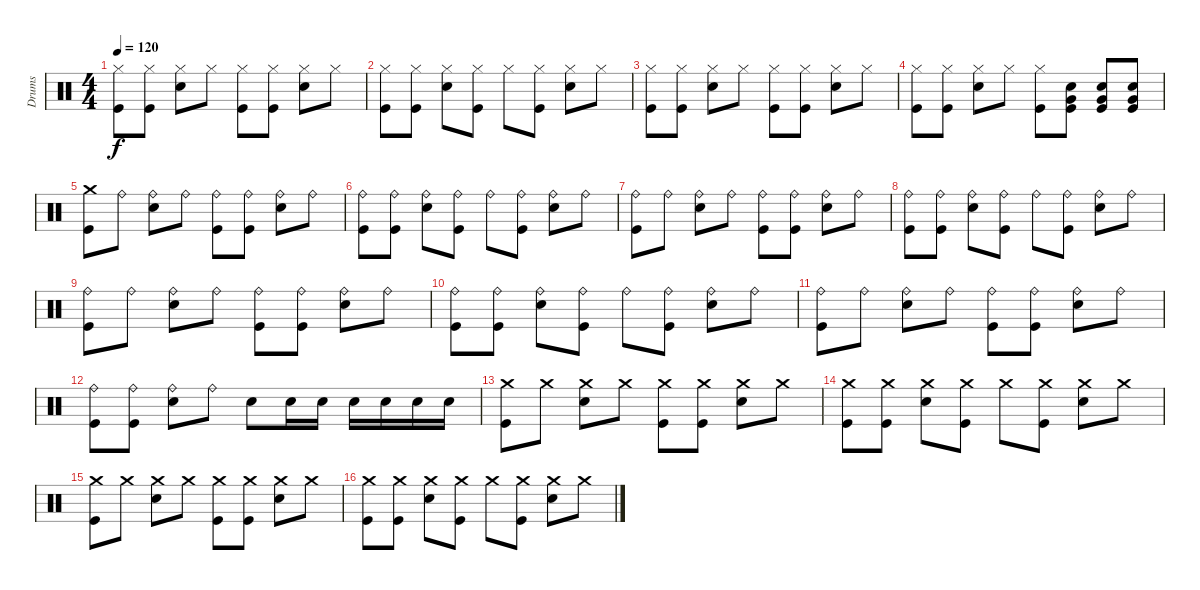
\track ("Drums" "Drums") {instrument percussion}
\staff {score}
\articulation defaults
\ts (4 4)
\tempo 120
\clef neutral
\ks c
("Hi-Hat (closed)" "Kick (hit)").8{dy f} ("Hi-Hat (closed)" "Kick (hit)").8 ("Hi-Hat (closed)" "Snare (hit) 2").8 "Hi-Hat (closed)".8 ("Hi-Hat (closed)" "Kick (hit)").8 ("Hi-Hat (closed)" "Kick (hit)").8 ("Hi-Hat (closed)" "Snare (hit) 2").8 "Hi-Hat (closed)".8 |
("Hi-Hat (closed)" "Kick (hit)").8 ("Hi-Hat (closed)" "Kick (hit)").8 ("Hi-Hat (closed)" "Snare (hit) 2").8 ("Hi-Hat (closed)" "Kick (hit)").8 "Hi-Hat (closed)".8 ("Hi-Hat (closed)" "Kick (hit)").8 ("Hi-Hat (closed)" "Snare (hit) 2").8 "Hi-Hat (closed)".8 |
("Hi-Hat (closed)" "Kick (hit)").8 ("Hi-Hat (closed)" "Kick (hit)").8 ("Hi-Hat (closed)" "Snare (hit) 2").8 "Hi-Hat (closed)".8 ("Hi-Hat (closed)" "Kick (hit)").8 ("Hi-Hat (closed)" "Kick (hit)").8 ("Hi-Hat (closed)" "Snare (hit) 2").8 "Hi-Hat (closed)".8 |
("Hi-Hat (closed)" "Kick (hit)").8 ("Hi-Hat (closed)" "Kick (hit)").8 ("Hi-Hat (closed)" "Snare (hit) 2").8 "Hi-Hat (closed)".8 ("Hi-Hat (closed)" "Kick (hit)").8 ("Snare (hit) 2" "Very Low Tom (hit)" "Kick (hit)").8 ("Snare (hit) 2" "Very Low Tom (hit)" "Kick (hit)").8 ("Snare (hit) 2" "Very Low Tom (hit)" "Kick (hit)").8 |
("Crash medium (hit)" "Kick (hit)").8 "Ride (bell)".8 ("Ride (bell)" "Snare (hit) 2").8 "Ride (bell)".8 ("Ride (bell)" "Kick (hit)").8 ("Ride (bell)" "Kick (hit)").8 ("Ride (bell)" "Snare (hit) 2").8 "Ride (bell)".8 |
("Ride (bell)" "Kick (hit)").8 ("Ride (bell)" "Kick (hit)").8 ("Ride (bell)" "Snare (hit) 2").8 ("Ride (bell)" "Kick (hit)").8 "Ride (bell)".8 ("Ride (bell)" "Kick (hit)").8 ("Ride (bell)" "Snare (hit) 2").8 "Ride (bell)".8 |
("Ride (bell)" "Kick (hit)").8 "Ride (bell)".8 ("Ride (bell)" "Snare (hit) 2").8 "Ride (bell)".8 ("Ride (bell)" "Kick (hit)").8 ("Ride (bell)" "Kick (hit)").8 ("Ride (bell)" "Snare (hit) 2").8 "Ride (bell)".8 |
("Ride (bell)" "Kick (hit)").8 ("Ride (bell)" "Kick (hit)").8 ("Ride (bell)" "Snare (hit) 2").8 ("Ride (bell)" "Kick (hit)").8 "Ride (bell)".8 ("Ride (bell)" "Kick (hit)").8 ("Ride (bell)" "Snare (hit) 2").8 "Ride (bell)".8 |
("Ride (bell)" "Kick (hit)").8 "Ride (bell)".8 ("Ride (bell)" "Snare (hit) 2").8 "Ride (bell)".8 ("Ride (bell)" "Kick (hit)").8 ("Ride (bell)" "Kick (hit)").8 ("Ride (bell)" "Snare (hit) 2").8 "Ride (bell)".8 |
("Ride (bell)" "Kick (hit)").8 ("Ride (bell)" "Kick (hit)").8 ("Ride (bell)" "Snare (hit) 2").8 ("Ride (bell)" "Kick (hit)").8 "Ride (bell)".8 ("Ride (bell)" "Kick (hit)").8 ("Ride (bell)" "Snare (hit) 2").8 "Ride (bell)".8 |
("Ride (bell)" "Kick (hit)").8 "Ride (bell)".8 ("Ride (bell)" "Snare (hit) 2").8 "Ride (bell)".8 ("Ride (bell)" "Kick (hit)").8 ("Ride (bell)" "Kick (hit)").8 ("Ride (bell)" "Snare (hit) 2").8 "Ride (bell)".8 |
("Ride (bell)" "Kick (hit)").8 ("Ride (bell)" "Kick (hit)").8 ("Ride (bell)" "Snare (hit) 2").8 "Ride (bell)".8 "Snare (hit) 2".8 "Snare (hit) 2".16 "Snare (hit) 2".16 "Snare (hit) 2".16 "Snare (hit) 2".16 "Snare (hit) 2".16 "Snare (hit) 2".16 |
("Crash medium (hit)" "Kick (hit)").8 "Crash medium (hit)".8 ("Crash medium (hit)" "Snare (hit) 2").8 "Crash medium (hit)".8 ("Crash medium (hit)" "Kick (hit)").8 ("Crash medium (hit)" "Kick (hit)").8 ("Crash medium (hit)" "Snare (hit) 2").8 "Crash medium (hit)".8 |
("Crash medium (hit)" "Kick (hit)").8 ("Crash medium (hit)" "Kick (hit)").8 ("Crash medium (hit)" "Snare (hit) 2").8 ("Crash medium (hit)" "Kick (hit)").8 "Crash medium (hit)".8 ("Crash medium (hit)" "Kick (hit)").8 ("Crash medium (hit)" "Snare (hit) 2").8 "Crash medium (hit)".8 |
("Crash medium (hit)" "Kick (hit)").8 "Crash medium (hit)".8 ("Crash medium (hit)" "Snare (hit) 2").8 "Crash medium (hit)".8 ("Crash medium (hit)" "Kick (hit)").8 ("Crash medium (hit)" "Kick (hit)").8 ("Crash medium (hit)" "Snare (hit) 2").8 "Crash medium (hit)".8 |
("Crash medium (hit)" "Kick (hit)").8 ("Crash medium (hit)" "Kick (hit)").8 ("Crash medium (hit)" "Snare (hit) 2").8 ("Crash medium (hit)" "Kick (hit)").8 "Crash medium (hit)".8 ("Crash medium (hit)" "Kick (hit)").8 ("Crash medium (hit)" "Snare (hit) 2").8 "Crash medium (hit)".8
